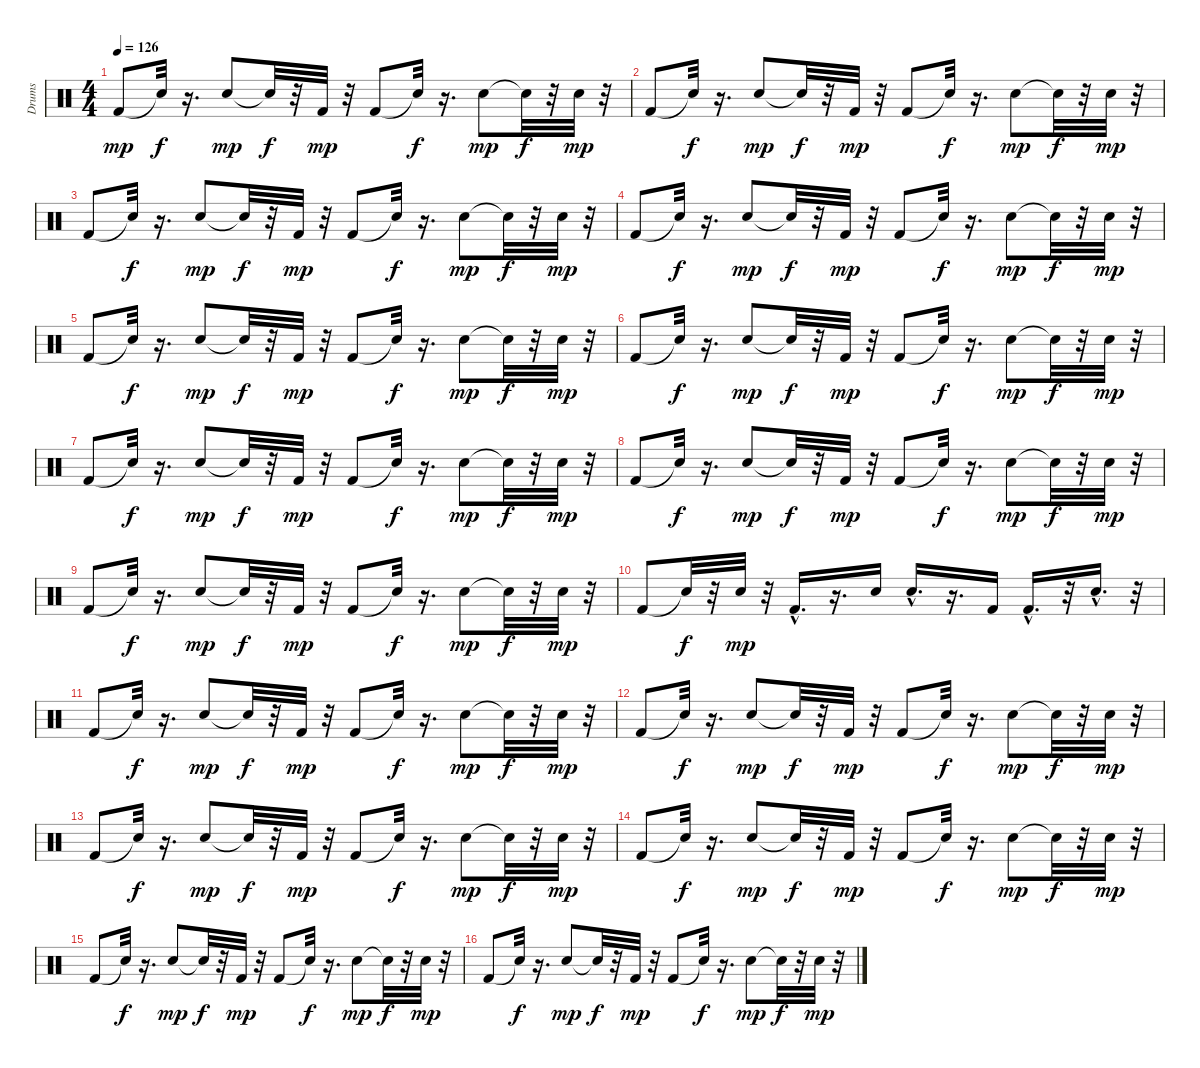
\track ("Drums" "Drums") {instrument percussion}
\staff {score}
\articulation defaults
\ts (4 4)
\tempo 126
\clef neutral
\ks c "Kick (hit) 2".8{dy mp} "Snare (hit)"{t}.32{dy f}
r.16{d} "Electric Snare (hit)".8{dy mp} "Snare (hit)"{t}.32{dy f} r.32 "Kick (hit) 2".32{dy mp} r.32 "Kick (hit) 2".8 "Snare (hit)"{t}.32{dy f} r.16{d} "Electric Snare (hit)".8{dy mp} "Snare (hit)"{t}.32{dy f} r.32 "Electric Snare (hit)".32{dy mp} r.32 |
"Kick (hit) 2".8 "Snare (hit)"{t}.32{dy f} r.16{d} "Electric Snare (hit)".8{dy mp} "Snare (hit)"{t}.32{dy f} r.32 "Kick (hit) 2".32{dy mp} r.32 "Kick (hit) 2".8 "Snare (hit)"{t}.32{dy f} r.16{d} "Electric Snare (hit)".8{dy mp} "Snare (hit)"{t}.32{dy f} r.32 "Electric Snare (hit)".32{dy mp} r.32 |
"Kick (hit) 2".8 "Snare (hit)"{t}.32{dy f} r.16{d} "Electric Snare (hit)".8{dy mp} "Snare (hit)"{t}.32{dy f} r.32 "Kick (hit) 2".32{dy mp} r.32 "Kick (hit) 2".8 "Snare (hit)"{t}.32{dy f} r.16{d} "Electric Snare (hit)".8{dy mp} "Snare (hit)"{t}.32{dy f} r.32 "Electric Snare (hit)".32{dy mp} r.32 |
"Kick (hit) 2".8 "Snare (hit)"{t}.32{dy f} r.16{d} "Electric Snare (hit)".8{dy mp} "Snare (hit)"{t}.32{dy f} r.32 "Kick (hit) 2".32{dy mp} r.32 "Kick (hit) 2".8 "Snare (hit)"{t}.32{dy f} r.16{d} "Electric Snare (hit)".8{dy mp} "Snare (hit)"{t}.32{dy f} r.32 "Electric Snare (hit)".32{dy mp} r.32 |
"Kick (hit) 2".8 "Snare (hit)"{t}.32{dy f} r.16{d} "Electric Snare (hit)".8{dy mp} "Snare (hit)"{t}.32{dy f} r.32 "Kick (hit) 2".32{dy mp} r.32 "Kick (hit) 2".8 "Snare (hit)"{t}.32{dy f} r.16{d} "Electric Snare (hit)".8{dy mp} "Snare (hit)"{t}.32{dy f} r.32 "Electric Snare (hit)".32{dy mp} r.32 |
"Kick (hit) 2".8 "Snare (hit)"{t}.32{dy f} r.16{d} "Electric Snare (hit)".8{dy mp} "Snare (hit)"{t}.32{dy f} r.32 "Kick (hit) 2".32{dy mp} r.32 "Kick (hit) 2".8 "Snare (hit)"{t}.32{dy f} r.16{d} "Electric Snare (hit)".8{dy mp} "Snare (hit)"{t}.32{dy f} r.32 "Electric Snare (hit)".32{dy mp} r.32 |
"Kick (hit) 2".8 "Snare (hit)"{t}.32{dy f} r.16{d} "Electric Snare (hit)".8{dy mp} "Snare (hit)"{t}.32{dy f} r.32 "Kick (hit) 2".32{dy mp} r.32 "Kick (hit) 2".8 "Snare (hit)"{t}.32{dy f} r.16{d} "Electric Snare (hit)".8{dy mp} "Snare (hit)"{t}.32{dy f} r.32 "Electric Snare (hit)".32{dy mp} r.32 |
"Kick (hit) 2".8 "Snare (hit)"{t}.32{dy f} r.16{d} "Electric Snare (hit)".8{dy mp} "Snare (hit)"{t}.32{dy f} r.32 "Kick (hit) 2".32{dy mp} r.32 "Kick (hit) 2".8 "Snare (hit)"{t}.32{dy f} r.16{d} "Electric Snare (hit)".8{dy mp} "Snare (hit)"{t}.32{dy f} r.32 "Electric Snare (hit)".32{dy mp} r.32 |
"Kick (hit) 2".8 "Snare (hit)"{t}.32{dy f} r.16{d} "Electric Snare (hit)".8{dy mp} "Snare (hit)"{t}.32{dy f} r.32 "Kick (hit) 2".32{dy mp} r.32 "Kick (hit) 2".8 "Snare (hit)"{t}.32{dy f} r.16{d} "Electric Snare (hit)".8{dy mp} "Snare (hit)"{t}.32{dy f} r.32 "Electric Snare (hit)".32{dy mp} r.32 |
"Kick (hit) 2".8 "Snare (hit)"{t}.32{dy f} r.32 "Electric Snare (hit)".32{dy mp} r.32 "Kick (hit) 2"{hac}.16{d} r.16{d} "Electric Snare (hit)".16 "Electric Snare (hit)"{hac}.16{d} r.16{d} "Kick (hit) 2".16 "Kick (hit) 2"{hac}.16{d} r.32 "Electric Snare (hit)"{hac}.16{d} r.32 |
"Kick (hit) 2".8 "Snare (hit)"{t}.32{dy f} r.16{d} "Electric Snare (hit)".8{dy mp} "Snare (hit)"{t}.32{dy f} r.32 "Kick (hit) 2".32{dy mp} r.32 "Kick (hit) 2".8 "Snare (hit)"{t}.32{dy f} r.16{d} "Electric Snare (hit)".8{dy mp} "Snare (hit)"{t}.32{dy f} r.32 "Electric Snare (hit)".32{dy mp} r.32 |
"Kick (hit) 2".8 "Snare (hit)"{t}.32{dy f} r.16{d} "Electric Snare (hit)".8{dy mp} "Snare (hit)"{t}.32{dy f} r.32 "Kick (hit) 2".32{dy mp} r.32 "Kick (hit) 2".8 "Snare (hit)"{t}.32{dy f} r.16{d} "Electric Snare (hit)".8{dy mp} "Snare (hit)"{t}.32{dy f} r.32 "Electric Snare (hit)".32{dy mp} r.32 |
"Kick (hit) 2".8 "Snare (hit)"{t}.32{dy f} r.16{d} "Electric Snare (hit)".8{dy mp} "Snare (hit)"{t}.32{dy f} r.32 "Kick (hit) 2".32{dy mp} r.32 "Kick (hit) 2".8 "Snare (hit)"{t}.32{dy f} r.16{d} "Electric Snare (hit)".8{dy mp} "Snare (hit)"{t}.32{dy f} r.32 "Electric Snare (hit)".32{dy mp} r.32 |
"Kick (hit) 2".8 "Snare (hit)"{t}.32{dy f} r.16{d} "Electric Snare (hit)".8{dy mp} "Snare (hit)"{t}.32{dy f} r.32 "Kick (hit) 2".32{dy mp} r.32 "Kick (hit) 2".8 "Snare (hit)"{t}.32{dy f} r.16{d} "Electric Snare (hit)".8{dy mp} "Snare (hit)"{t}.32{dy f} r.32 "Electric Snare (hit)".32{dy mp} r.32 |
"Kick (hit) 2".8 "Snare (hit)"{t}.32{dy f} r.16{d} "Electric Snare (hit)".8{dy mp} "Snare (hit)"{t}.32{dy f} r.32 "Kick (hit) 2".32{dy mp} r.32 "Kick (hit) 2".8 "Snare (hit)"{t}.32{dy f} r.16{d} "Electric Snare (hit)".8{dy mp} "Snare (hit)"{t}.32{dy f} r.32 "Electric Snare (hit)".32{dy mp} r.32 |
"Kick (hit) 2".8 "Snare (hit)"{t}.32{dy f} r.16{d} "Electric Snare (hit)".8{dy mp} "Snare (hit)"{t}.32{dy f} r.32 "Kick (hit) 2".32{dy mp} r.32 "Kick (hit) 2".8 "Snare (hit)"{t}.32{dy f} r.16{d} "Electric Snare (hit)".8{dy mp} "Snare (hit)"{t}.32{dy f} r.32 "Electric Snare (hit)".32{dy mp} r.32
